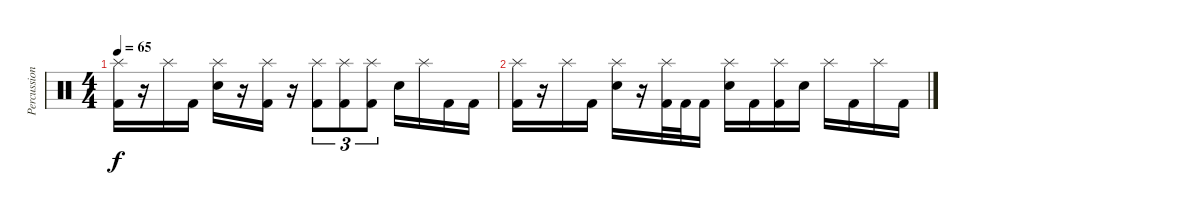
\track ("Percussions" "Percussion") {instrument percussion}
\staff {score}
\articulation defaults
\ts (4 4)
\tempo 65
\clef neutral
\ks c
("Splash (hit)" "Kick (hit) 2").16{dy f} r.16 "Splash (hit)".16 "Kick (hit) 2".16 ("Splash (hit)" "Electric Snare (hit)").16 r.16 ("Splash (hit)" "Kick (hit) 2").16 r.16 ("Splash (hit)" "Kick (hit) 2").8{tu (3 2)} ("Splash (hit)" "Kick (hit) 2").8{tu (3 2)} ("Splash (hit)" "Kick (hit) 2").8{tu (3 2)} "Electric Snare (hit)".16 "Splash (hit)".16 "Kick (hit) 2".16 "Kick (hit) 2".16 |
("Splash (hit)" "Kick (hit) 2").16 r.16 "Splash (hit)".16 "Kick (hit) 2".16 ("Splash (hit)" "Electric Snare (hit)").16 r.16 ("Splash (hit)" "Kick (hit) 2").32 "Kick (hit) 2".32 "Kick (hit) 2".16 ("Splash (hit)" "Electric Snare (hit)").16 "Kick (hit) 2".16 ("Splash (hit)" "Kick (hit) 2").16 "Electric Snare (hit)".16 "Splash (hit)".16 "Kick (hit) 2".16 "Splash (hit)".16 "Kick (hit) 2".16
